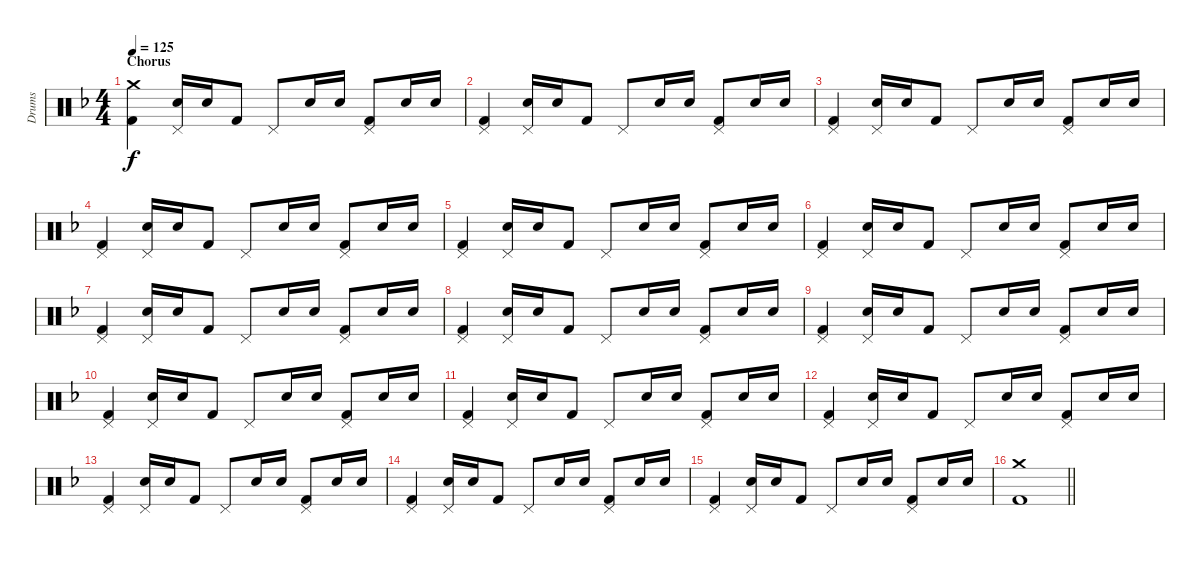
\track ("Drums" "Drums") {instrument percussion}
\staff {score}
\articulation defaults
\ts (4 4)
\section ("" "Chorus")
\tempo 125
\clef neutral
\ks f
("Crash medium (hit)" "Kick (hit) 2").4{dy f} ("Pedal Hi-Hat (hit)" "Snare (hit) 2").16 "Snare (hit) 2".16 "Kick (hit) 2".8 "Pedal Hi-Hat (hit)".8 "Snare (hit) 2".16 "Snare (hit) 2".16 ("Pedal Hi-Hat (hit)" "Kick (hit) 2").8 "Snare (hit) 2".16 "Snare (hit) 2".16 |
("Pedal Hi-Hat (hit)" "Kick (hit) 2").4 ("Pedal Hi-Hat (hit)" "Snare (hit) 2").16 "Snare (hit) 2".16 "Kick (hit) 2".8 "Pedal Hi-Hat (hit)".8 "Snare (hit) 2".16 "Snare (hit) 2".16 ("Pedal Hi-Hat (hit)" "Kick (hit) 2").8 "Snare (hit) 2".16 "Snare (hit) 2".16 |
("Pedal Hi-Hat (hit)" "Kick (hit) 2").4 ("Pedal Hi-Hat (hit)" "Snare (hit) 2").16 "Snare (hit) 2".16 "Kick (hit) 2".8 "Pedal Hi-Hat (hit)".8 "Snare (hit) 2".16 "Snare (hit) 2".16 ("Pedal Hi-Hat (hit)" "Kick (hit) 2").8 "Snare (hit) 2".16 "Snare (hit) 2".16 |
("Pedal Hi-Hat (hit)" "Kick (hit) 2").4 ("Pedal Hi-Hat (hit)" "Snare (hit) 2").16 "Snare (hit) 2".16 "Kick (hit) 2".8 "Pedal Hi-Hat (hit)".8 "Snare (hit) 2".16 "Snare (hit) 2".16 ("Pedal Hi-Hat (hit)" "Kick (hit) 2").8 "Snare (hit) 2".16 "Snare (hit) 2".16 |
("Pedal Hi-Hat (hit)" "Kick (hit) 2").4 ("Pedal Hi-Hat (hit)" "Snare (hit) 2").16 "Snare (hit) 2".16 "Kick (hit) 2".8 "Pedal Hi-Hat (hit)".8 "Snare (hit) 2".16 "Snare (hit) 2".16 ("Pedal Hi-Hat (hit)" "Kick (hit) 2").8 "Snare (hit) 2".16 "Snare (hit) 2".16 |
("Pedal Hi-Hat (hit)" "Kick (hit) 2").4 ("Pedal Hi-Hat (hit)" "Snare (hit) 2").16 "Snare (hit) 2".16 "Kick (hit) 2".8 "Pedal Hi-Hat (hit)".8 "Snare (hit) 2".16 "Snare (hit) 2".16 ("Pedal Hi-Hat (hit)" "Kick (hit) 2").8 "Snare (hit) 2".16 "Snare (hit) 2".16 |
("Pedal Hi-Hat (hit)" "Kick (hit) 2").4 ("Pedal Hi-Hat (hit)" "Snare (hit) 2").16 "Snare (hit) 2".16 "Kick (hit) 2".8 "Pedal Hi-Hat (hit)".8 "Snare (hit) 2".16 "Snare (hit) 2".16 ("Pedal Hi-Hat (hit)" "Kick (hit) 2").8 "Snare (hit) 2".16 "Snare (hit) 2".16 |
("Pedal Hi-Hat (hit)" "Kick (hit) 2").4 ("Pedal Hi-Hat (hit)" "Snare (hit) 2").16 "Snare (hit) 2".16 "Kick (hit) 2".8 "Pedal Hi-Hat (hit)".8 "Snare (hit) 2".16 "Snare (hit) 2".16 ("Pedal Hi-Hat (hit)" "Kick (hit) 2").8 "Snare (hit) 2".16 "Snare (hit) 2".16 |
("Pedal Hi-Hat (hit)" "Kick (hit) 2").4 ("Pedal Hi-Hat (hit)" "Snare (hit) 2").16 "Snare (hit) 2".16 "Kick (hit) 2".8 "Pedal Hi-Hat (hit)".8 "Snare (hit) 2".16 "Snare (hit) 2".16 ("Pedal Hi-Hat (hit)" "Kick (hit) 2").8 "Snare (hit) 2".16 "Snare (hit) 2".16 |
("Pedal Hi-Hat (hit)" "Kick (hit) 2").4 ("Pedal Hi-Hat (hit)" "Snare (hit) 2").16 "Snare (hit) 2".16 "Kick (hit) 2".8 "Pedal Hi-Hat (hit)".8 "Snare (hit) 2".16 "Snare (hit) 2".16 ("Pedal Hi-Hat (hit)" "Kick (hit) 2").8 "Snare (hit) 2".16 "Snare (hit) 2".16 |
("Pedal Hi-Hat (hit)" "Kick (hit) 2").4 ("Pedal Hi-Hat (hit)" "Snare (hit) 2").16 "Snare (hit) 2".16 "Kick (hit) 2".8 "Pedal Hi-Hat (hit)".8 "Snare (hit) 2".16 "Snare (hit) 2".16 ("Pedal Hi-Hat (hit)" "Kick (hit) 2").8 "Snare (hit) 2".16 "Snare (hit) 2".16 |
("Pedal Hi-Hat (hit)" "Kick (hit) 2").4 ("Pedal Hi-Hat (hit)" "Snare (hit) 2").16 "Snare (hit) 2".16 "Kick (hit) 2".8 "Pedal Hi-Hat (hit)".8 "Snare (hit) 2".16 "Snare (hit) 2".16 ("Pedal Hi-Hat (hit)" "Kick (hit) 2").8 "Snare (hit) 2".16 "Snare (hit) 2".16 |
("Pedal Hi-Hat (hit)" "Kick (hit) 2").4 ("Pedal Hi-Hat (hit)" "Snare (hit) 2").16 "Snare (hit) 2".16 "Kick (hit) 2".8 "Pedal Hi-Hat (hit)".8 "Snare (hit) 2".16 "Snare (hit) 2".16 ("Pedal Hi-Hat (hit)" "Kick (hit) 2").8 "Snare (hit) 2".16 "Snare (hit) 2".16 |
("Pedal Hi-Hat (hit)" "Kick (hit) 2").4 ("Pedal Hi-Hat (hit)" "Snare (hit) 2").16 "Snare (hit) 2".16 "Kick (hit) 2".8 "Pedal Hi-Hat (hit)".8 "Snare (hit) 2".16 "Snare (hit) 2".16 ("Pedal Hi-Hat (hit)" "Kick (hit) 2").8 "Snare (hit) 2".16 "Snare (hit) 2".16 |
("Pedal Hi-Hat (hit)" "Kick (hit) 2").4 ("Pedal Hi-Hat (hit)" "Snare (hit) 2").16 "Snare (hit) 2".16 "Kick (hit) 2".8 "Pedal Hi-Hat (hit)".8 "Snare (hit) 2".16 "Snare (hit) 2".16 ("Pedal Hi-Hat (hit)" "Kick (hit) 2").8 "Snare (hit) 2".16 "Snare (hit) 2".16 |
\barLineRight lightlight
("Crash medium (hit)" "Kick (hit) 2").1
